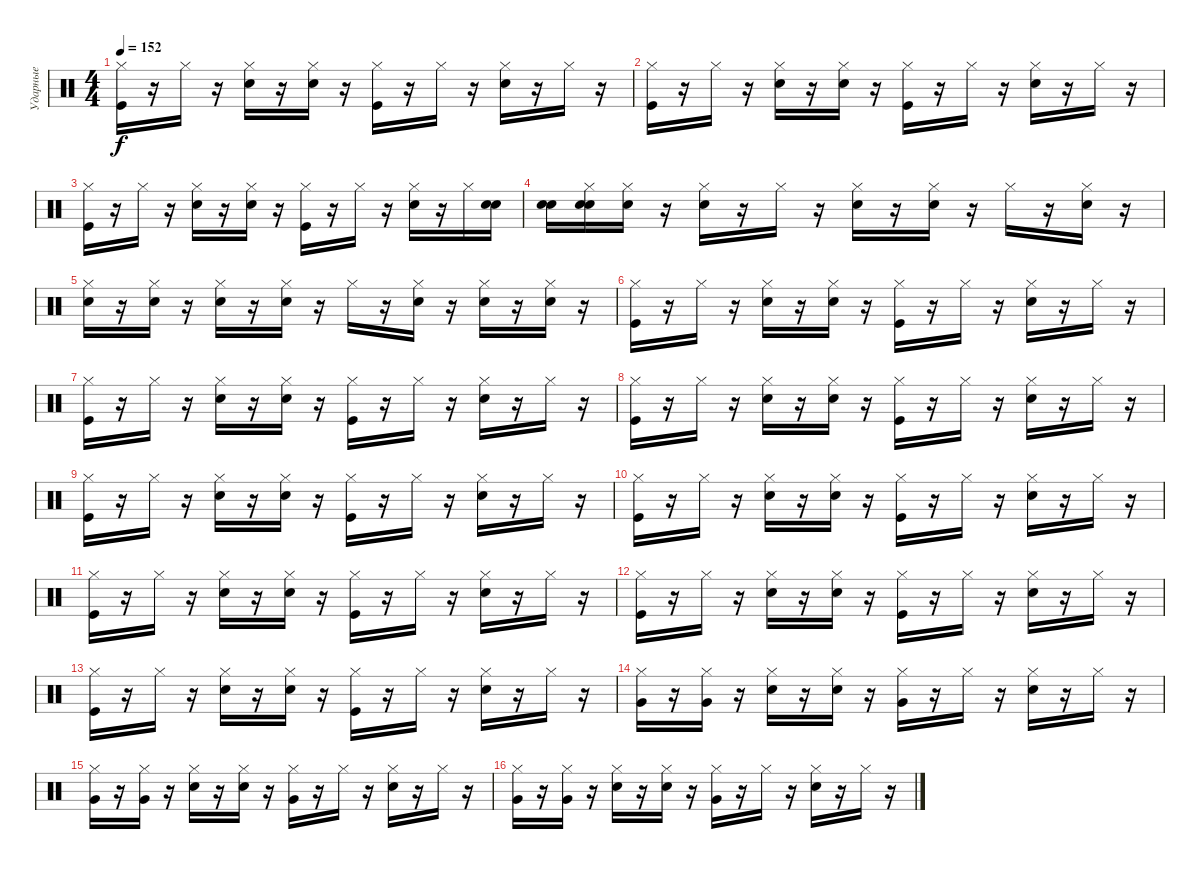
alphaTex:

\track ("Ударные" "Ударные") {instrument percussion}
\staff {score}
\articulation defaults
\ts (4 4)
\tempo 152
\clef neutral
\ks c
("Kick (hit)" "Hi-Hat (closed)").16{dy f} r.16 "Hi-Hat (closed)".16 r.16 ("Electric Snare (hit)" "Hi-Hat (closed)").16 r.16 ("Electric Snare (hit)" "Hi-Hat (closed)").16 r.16 ("Kick (hit)" "Hi-Hat (closed)").16 r.16 "Hi-Hat (closed)".16 r.16 ("Electric Snare (hit)" "Hi-Hat (closed)").16 r.16 "Hi-Hat (closed)".16 r.16 |
("Kick (hit)" "Hi-Hat (closed)").16 r.16 "Hi-Hat (closed)".16 r.16 ("Electric Snare (hit)" "Hi-Hat (closed)").16 r.16 ("Electric Snare (hit)" "Hi-Hat (closed)").16 r.16 ("Hi-Hat (closed)" "Kick (hit)").16 r.16 "Hi-Hat (closed)".16 r.16 ("Electric Snare (hit)" "Hi-Hat (closed)").16 r.16 "Hi-Hat (closed)".16 r.16 |
("Kick (hit)" "Hi-Hat (closed)").16 r.16 "Hi-Hat (closed)".16 r.16 ("Electric Snare (hit)" "Hi-Hat (closed)").16 r.16 ("Electric Snare (hit)" "Hi-Hat (closed)").16 r.16 ("Kick (hit)" "Hi-Hat (closed)").16 r.16 "Hi-Hat (closed)".16 r.16 ("Electric Snare (hit)" "Hi-Hat (closed)").16 r.16 "Hi-Hat (closed)".16 ("Snare (hit)" "Electric Snare (hit)").16 |
("Snare (hit)" "Electric Snare (hit)").16 ("Snare (hit)" "Electric Snare (hit)" "Hi-Hat (closed)").16 ("Snare (hit)" "Hi-Hat (closed)").16 r.16 ("Electric Snare (hit)" "Hi-Hat (closed)").16 r.16 "Hi-Hat (closed)".16 r.16 ("Electric Snare (hit)" "Hi-Hat (closed)").16 r.16 ("Electric Snare (hit)" "Hi-Hat (closed)").16 r.16 "Hi-Hat (closed)".16 r.16 ("Electric Snare (hit)" "Hi-Hat (closed)").16 r.16 |
("Electric Snare (hit)" "Hi-Hat (closed)").16 r.16 ("Electric Snare (hit)" "Hi-Hat (closed)").16 r.16 ("Hi-Hat (closed)" "Electric Snare (hit)").16 r.16 ("Electric Snare (hit)" "Hi-Hat (closed)").16 r.16 "Hi-Hat (closed)".16 r.16 ("Electric Snare (hit)" "Hi-Hat (closed)").16 r.16 ("Electric Snare (hit)" "Hi-Hat (closed)").16 r.16 ("Electric Snare (hit)" "Hi-Hat (closed)").16 r.16 |
("Kick (hit)" "Hi-Hat (closed)").16 r.16 "Hi-Hat (closed)".16 r.16 ("Electric Snare (hit)" "Hi-Hat (closed)").16 r.16 ("Electric Snare (hit)" "Hi-Hat (closed)").16 r.16 ("Kick (hit)" "Hi-Hat (closed)").16 r.16 "Hi-Hat (closed)".16 r.16 ("Electric Snare (hit)" "Hi-Hat (closed)").16 r.16 "Hi-Hat (closed)".16 r.16 |
("Kick (hit)" "Hi-Hat (closed)").16 r.16 "Hi-Hat (closed)".16 r.16 ("Electric Snare (hit)" "Hi-Hat (closed)").16 r.16 ("Electric Snare (hit)" "Hi-Hat (closed)").16 r.16 ("Kick (hit)" "Hi-Hat (closed)").16 r.16 "Hi-Hat (closed)".16 r.16 ("Electric Snare (hit)" "Hi-Hat (closed)").16 r.16 "Hi-Hat (closed)".16 r.16 |
("Hi-Hat (closed)" "Kick (hit)").16 r.16 "Hi-Hat (closed)".16 r.16 ("Electric Snare (hit)" "Hi-Hat (closed)").16 r.16 ("Electric Snare (hit)" "Hi-Hat (closed)").16 r.16 ("Kick (hit)" "Hi-Hat (closed)").16 r.16 "Hi-Hat (closed)".16 r.16 ("Electric Snare (hit)" "Hi-Hat (closed)").16 r.16 "Hi-Hat (closed)".16 r.16 |
("Kick (hit)" "Hi-Hat (closed)").16 r.16 "Hi-Hat (closed)".16 r.16 ("Electric Snare (hit)" "Hi-Hat (closed)").16 r.16 ("Hi-Hat (closed)" "Electric Snare (hit)").16 r.16 ("Kick (hit)" "Hi-Hat (closed)").16 r.16 "Hi-Hat (closed)".16 r.16 ("Electric Snare (hit)" "Hi-Hat (closed)").16 r.16 "Hi-Hat (closed)".16 r.16 |
("Kick (hit)" "Hi-Hat (closed)").16 r.16 "Hi-Hat (closed)".16 r.16 ("Electric Snare (hit)" "Hi-Hat (closed)").16 r.16 ("Electric Snare (hit)" "Hi-Hat (closed)").16 r.16 ("Kick (hit)" "Hi-Hat (closed)").16 r.16 "Hi-Hat (closed)".16 r.16 ("Hi-Hat (closed)" "Electric Snare (hit)").16 r.16 "Hi-Hat (closed)".16 r.16 |
("Kick (hit)" "Hi-Hat (closed)").16 r.16 "Hi-Hat (closed)".16 r.16 ("Electric Snare (hit)" "Hi-Hat (closed)").16 r.16 ("Electric Snare (hit)" "Hi-Hat (closed)").16 r.16 ("Kick (hit)" "Hi-Hat (closed)").16 r.16 "Hi-Hat (closed)".16 r.16 ("Electric Snare (hit)" "Hi-Hat (closed)").16 r.16 "Hi-Hat (closed)".16 r.16 |
("Kick (hit)" "Hi-Hat (closed)").16 r.16 "Hi-Hat (closed)".16 r.16 ("Electric Snare (hit)" "Hi-Hat (closed)").16 r.16 ("Electric Snare (hit)" "Hi-Hat (closed)").16 r.16 ("Kick (hit)" "Hi-Hat (closed)").16 r.16 "Hi-Hat (closed)".16 r.16 ("Electric Snare (hit)" "Hi-Hat (closed)").16 r.16 "Hi-Hat (closed)".16 r.16 |
("Kick (hit)" "Hi-Hat (closed)").16 r.16 "Hi-Hat (closed)".16 r.16 ("Electric Snare (hit)" "Hi-Hat (closed)").16 r.16 ("Electric Snare (hit)" "Hi-Hat (closed)").16 r.16 ("Hi-Hat (closed)" "Kick (hit)").16 r.16 "Hi-Hat (closed)".16 r.16 ("Electric Snare (hit)" "Hi-Hat (closed)").16 r.16 "Hi-Hat (closed)".16 r.16 |
("Very Low Tom (hit)" "Hi-Hat (closed)").16 r.16 ("Very Low Tom (hit)" "Hi-Hat (closed)").16 r.16 ("Electric Snare (hit)" "Hi-Hat (closed)").16 r.16 ("Electric Snare (hit)" "Hi-Hat (closed)").16 r.16 ("Hi-Hat (closed)" "Very Low Tom (hit)").16 r.16 "Hi-Hat (closed)".16 r.16 ("Electric Snare (hit)" "Hi-Hat (closed)").16 r.16 "Hi-Hat (closed)".16 r.16 |
("Very Low Tom (hit)" "Hi-Hat (closed)").16 r.16 ("Very Low Tom (hit)" "Hi-Hat (closed)").16 r.16 ("Electric Snare (hit)" "Hi-Hat (closed)").16 r.16 ("Electric Snare (hit)" "Hi-Hat (closed)").16 r.16 ("Very Low Tom (hit)" "Hi-Hat (closed)").16 r.16 "Hi-Hat (closed)".16 r.16 ("Electric Snare (hit)" "Hi-Hat (closed)").16 r.16 "Hi-Hat (closed)".16 r.16 |
("Very Low Tom (hit)" "Hi-Hat (closed)").16 r.16 ("Hi-Hat (closed)" "Very Low Tom (hit)").16 r.16 ("Hi-Hat (closed)" "Electric Snare (hit)").16 r.16 ("Electric Snare (hit)" "Hi-Hat (closed)").16 r.16 ("Very Low Tom (hit)" "Hi-Hat (closed)").16 r.16 "Hi-Hat (closed)".16 r.16 ("Electric Snare (hit)" "Hi-Hat (closed)").16 r.16 "Hi-Hat (closed)".16 r.16
